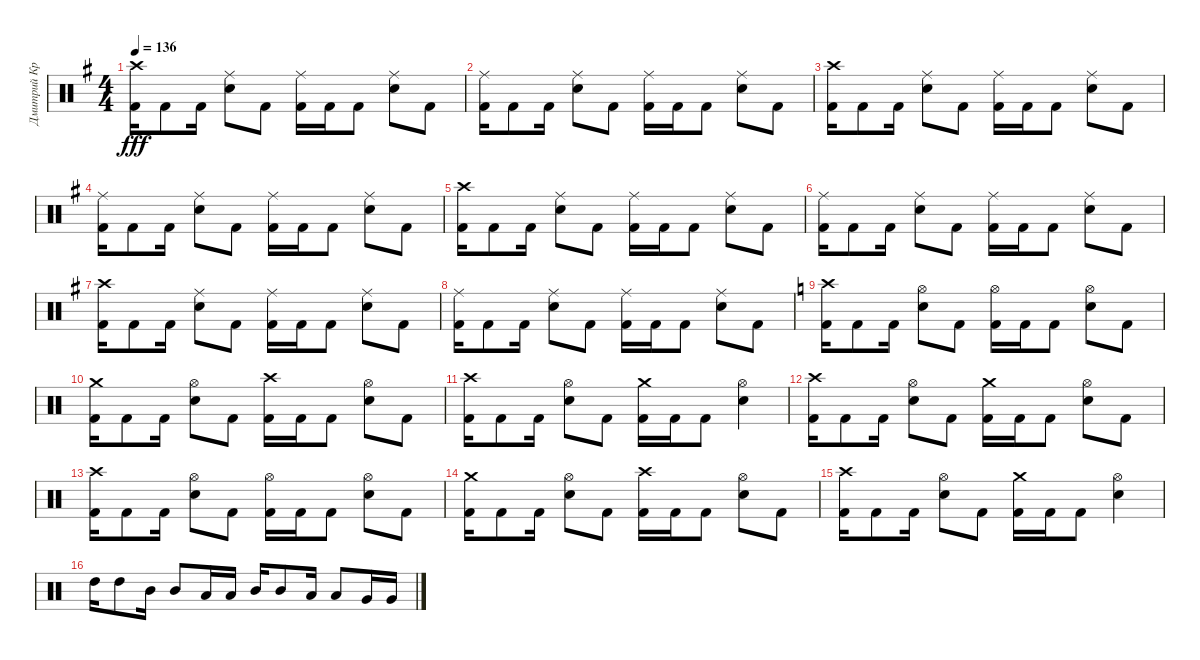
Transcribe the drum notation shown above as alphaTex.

\track ("Дмитрий Кривенков" "Дмитрий Кр") {instrument percussion}
\staff {score}
\articulation defaults
\ts (4 4)
\tempo 136
\clef neutral
\ks g
("Crash high (hit)" "Kick (hit) 2").16{dy fff} "Kick (hit) 2".8 "Kick (hit) 2".16 ("Ride (middle)" "Electric Snare (hit)").8 "Kick (hit) 2".8 ("Ride (middle)" "Kick (hit) 2").16 "Kick (hit) 2".16 "Kick (hit) 2".8 ("Ride (middle)" "Electric Snare (hit)").8 "Kick (hit) 2".8 |
("Ride (middle)" "Kick (hit) 2").16 "Kick (hit) 2".8 "Kick (hit) 2".16 ("Ride (middle)" "Electric Snare (hit)").8 "Kick (hit) 2".8 ("Ride (middle)" "Kick (hit) 2").16 "Kick (hit) 2".16 "Kick (hit) 2".8 ("Ride (middle)" "Electric Snare (hit)").8 "Kick (hit) 2".8 |
("Crash high (hit)" "Kick (hit) 2").16 "Kick (hit) 2".8 "Kick (hit) 2".16 ("Ride (middle)" "Electric Snare (hit)").8 "Kick (hit) 2".8 ("Ride (middle)" "Kick (hit) 2").16 "Kick (hit) 2".16 "Kick (hit) 2".8 ("Ride (middle)" "Electric Snare (hit)").8 "Kick (hit) 2".8 |
("Ride (middle)" "Kick (hit) 2").16 "Kick (hit) 2".8 "Kick (hit) 2".16 ("Ride (middle)" "Electric Snare (hit)").8 "Kick (hit) 2".8 ("Ride (middle)" "Kick (hit) 2").16 "Kick (hit) 2".16 "Kick (hit) 2".8 ("Ride (middle)" "Electric Snare (hit)").8 "Kick (hit) 2".8 |
("Crash high (hit)" "Kick (hit) 2").16 "Kick (hit) 2".8 "Kick (hit) 2".16 ("Ride (middle)" "Electric Snare (hit)").8 "Kick (hit) 2".8 ("Ride (middle)" "Kick (hit) 2").16 "Kick (hit) 2".16 "Kick (hit) 2".8 ("Ride (middle)" "Electric Snare (hit)").8 "Kick (hit) 2".8 |
("Ride (middle)" "Kick (hit) 2").16 "Kick (hit) 2".8 "Kick (hit) 2".16 ("Ride (middle)" "Electric Snare (hit)").8 "Kick (hit) 2".8 ("Ride (middle)" "Kick (hit) 2").16 "Kick (hit) 2".16 "Kick (hit) 2".8 ("Ride (middle)" "Electric Snare (hit)").8 "Kick (hit) 2".8 |
("Crash high (hit)" "Kick (hit) 2").16 "Kick (hit) 2".8 "Kick (hit) 2".16 ("Ride (middle)" "Electric Snare (hit)").8 "Kick (hit) 2".8 ("Ride (middle)" "Kick (hit) 2").16 "Kick (hit) 2".16 "Kick (hit) 2".8 ("Ride (middle)" "Electric Snare (hit)").8 "Kick (hit) 2".8 |
("Ride (middle)" "Kick (hit) 2").16 "Kick (hit) 2".8 "Kick (hit) 2".16 ("Ride (middle)" "Electric Snare (hit)").8 "Kick (hit) 2".8 ("Ride (middle)" "Kick (hit) 2").16 "Kick (hit) 2".16 "Kick (hit) 2".8 ("Ride (middle)" "Electric Snare (hit)").8 "Kick (hit) 2".8 |
\ks c
("Crash high (hit)" "Kick (hit) 2").16 "Kick (hit) 2".8 "Kick (hit) 2".16 ("Hi-Hat (open)" "Electric Snare (hit)").8 "Kick (hit) 2".8 ("Hi-Hat (open)" "Kick (hit) 2").16 "Kick (hit) 2".16 "Kick (hit) 2".8 ("Hi-Hat (open)" "Electric Snare (hit)").8 "Kick (hit) 2".8 |
("Kick (hit) 2" "Crash medium (hit)").16 "Kick (hit) 2".8 "Kick (hit) 2".16 ("Hi-Hat (open)" "Electric Snare (hit)").8 "Kick (hit) 2".8 ("Kick (hit) 2" "Crash high (hit)").16 "Kick (hit) 2".16 "Kick (hit) 2".8 ("Hi-Hat (open)" "Electric Snare (hit)").8 "Kick (hit) 2".8 |
("Kick (hit) 2" "Crash high (hit)").16 "Kick (hit) 2".8 "Kick (hit) 2".16 ("Electric Snare (hit)" "Hi-Hat (open)").8 "Kick (hit) 2".8 ("Kick (hit) 2" "Crash medium (hit)").16 "Kick (hit) 2".16 "Kick (hit) 2".8 ("Electric Snare (hit)" "Hi-Hat (open)").4 |
("Crash high (hit)" "Kick (hit) 2").16 "Kick (hit) 2".8 "Kick (hit) 2".16 ("Hi-Hat (open)" "Electric Snare (hit)").8 "Kick (hit) 2".8 ("Crash medium (hit)" "Kick (hit) 2").16 "Kick (hit) 2".16 "Kick (hit) 2".8 ("Hi-Hat (open)" "Electric Snare (hit)").8 "Kick (hit) 2".8 |
("Crash high (hit)" "Kick (hit) 2").16 "Kick (hit) 2".8 "Kick (hit) 2".16 ("Hi-Hat (open)" "Electric Snare (hit)").8 "Kick (hit) 2".8 ("Hi-Hat (open)" "Kick (hit) 2").16 "Kick (hit) 2".16 "Kick (hit) 2".8 ("Hi-Hat (open)" "Electric Snare (hit)").8 "Kick (hit) 2".8 |
("Kick (hit) 2" "Crash medium (hit)").16 "Kick (hit) 2".8 "Kick (hit) 2".16 ("Hi-Hat (open)" "Electric Snare (hit)").8 "Kick (hit) 2".8 ("Kick (hit) 2" "Crash high (hit)").16 "Kick (hit) 2".16 "Kick (hit) 2".8 ("Hi-Hat (open)" "Electric Snare (hit)").8 "Kick (hit) 2".8 |
("Kick (hit) 2" "Crash high (hit)").16 "Kick (hit) 2".8 "Kick (hit) 2".16 ("Electric Snare (hit)" "Hi-Hat (open)").8 "Kick (hit) 2".8 ("Kick (hit) 2" "Crash medium (hit)").16 "Kick (hit) 2".16 "Kick (hit) 2".8 ("Electric Snare (hit)" "Hi-Hat (open)").4 |
"High Tom (hit)".16 "High Tom (hit)".8 "Mid Tom (hit)".16 "Mid Tom (hit)".8 "Low Tom (hit)".16 "Low Tom (hit)".16 "Mid Tom (hit)".16 "Mid Tom (hit)".8 "Low Tom (hit)".16 "Low Tom (hit)".8 "Very Low Tom (hit)".16 "Very Low Tom (hit)".16
